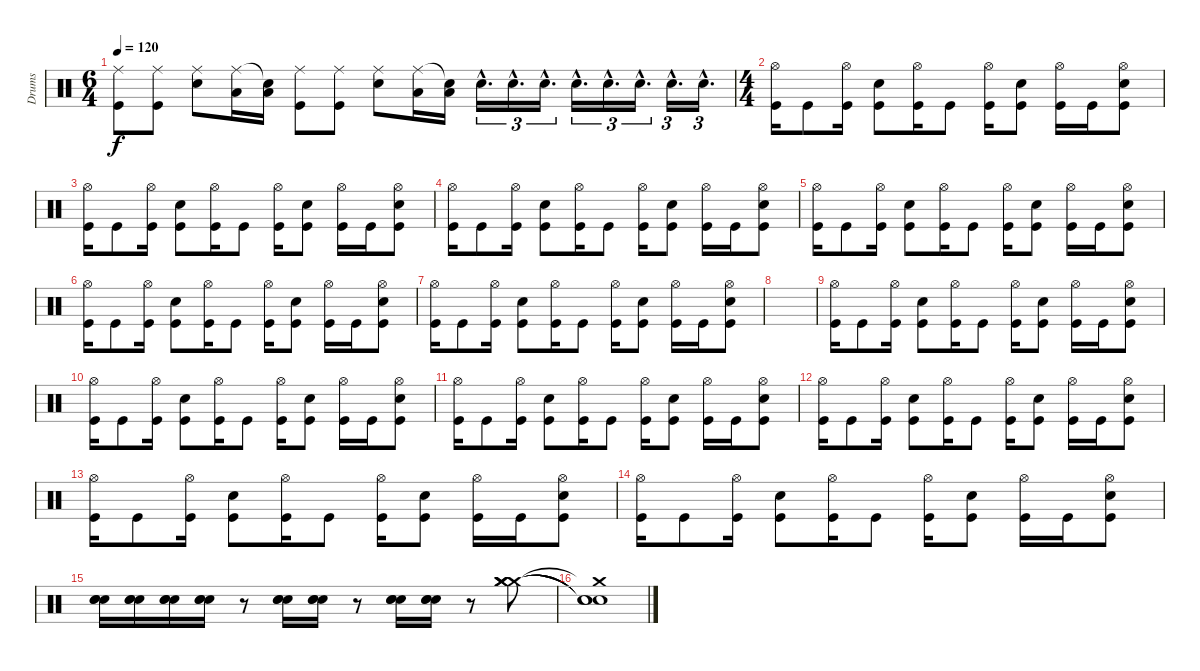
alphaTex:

\track ("Drums" "Drums") {instrument percussion}
\staff {score}
\articulation defaults
\ts (6 4)
\tempo 120
\clef neutral
\ks c
("Ride (middle)" "Kick (hit)").8{dy f} ("Ride (middle)" "Kick (hit)").8 ("Ride (middle)" "Electric Snare (hit)").8 ("Ride (middle)" "Low Floor Tom (hit)").16 ("Snare (hit)"{t} "Low Floor Tom (hit)").16 ("Ride (middle)" "Kick (hit)").8 ("Ride (middle)" "Kick (hit)").8 ("Ride (middle)" "Electric Snare (hit)").8 ("Ride (middle)" "Low Floor Tom (hit)").16 ("Snare (hit)"{t} "Low Floor Tom (hit)").16 "Electric Snare (hit)"{hac}.16{d tu (3 2)} "Electric Snare (hit)"{hac}.16{d tu (3 2)} "Electric Snare (hit)"{hac}.16{d tu (3 2)} "Electric Snare (hit)"{hac}.16{d tu (3 2)} "Electric Snare (hit)"{hac}.16{d tu (3 2)} "Electric Snare (hit)"{hac}.16{d tu (3 2)} "Electric Snare (hit)"{hac}.16{d tu (3 2)} "Electric Snare (hit)"{hac}.16{d tu (3 2)} |
\ts (4 4)
("Hi-Hat (open)" "Kick (hit)").16 "Kick (hit)".8 ("Hi-Hat (open)" "Kick (hit)").16 ("Electric Snare (hit)" "Kick (hit)").8 ("Hi-Hat (open)" "Kick (hit)").16 "Kick (hit)".8 ("Hi-Hat (open)" "Kick (hit)").16 ("Electric Snare (hit)" "Kick (hit)").8 ("Hi-Hat (open)" "Kick (hit)").16 "Kick (hit)".16 ("Hi-Hat (open)" "Electric Snare (hit)" "Kick (hit)").8 |
("Hi-Hat (open)" "Kick (hit)").16 "Kick (hit)".8 ("Hi-Hat (open)" "Kick (hit)").16 ("Electric Snare (hit)" "Kick (hit)").8 ("Hi-Hat (open)" "Kick (hit)").16 "Kick (hit)".8 ("Hi-Hat (open)" "Kick (hit)").16 ("Electric Snare (hit)" "Kick (hit)").8 ("Hi-Hat (open)" "Kick (hit)").16 "Kick (hit)".16 ("Hi-Hat (open)" "Electric Snare (hit)" "Kick (hit)").8 |
("Hi-Hat (open)" "Kick (hit)").16 "Kick (hit)".8 ("Hi-Hat (open)" "Kick (hit)").16 ("Electric Snare (hit)" "Kick (hit)").8 ("Hi-Hat (open)" "Kick (hit)").16 "Kick (hit)".8 ("Hi-Hat (open)" "Kick (hit)").16 ("Electric Snare (hit)" "Kick (hit)").8 ("Hi-Hat (open)" "Kick (hit)").16 "Kick (hit)".16 ("Hi-Hat (open)" "Electric Snare (hit)" "Kick (hit)").8 |
("Hi-Hat (open)" "Kick (hit)").16 "Kick (hit)".8 ("Hi-Hat (open)" "Kick (hit)").16 ("Electric Snare (hit)" "Kick (hit)").8 ("Hi-Hat (open)" "Kick (hit)").16 "Kick (hit)".8 ("Hi-Hat (open)" "Kick (hit)").16 ("Electric Snare (hit)" "Kick (hit)").8 ("Hi-Hat (open)" "Kick (hit)").16 "Kick (hit)".16 ("Hi-Hat (open)" "Electric Snare (hit)" "Kick (hit)").8 |
("Hi-Hat (open)" "Kick (hit)").16 "Kick (hit)".8 ("Hi-Hat (open)" "Kick (hit)").16 ("Electric Snare (hit)" "Kick (hit)").8 ("Hi-Hat (open)" "Kick (hit)").16 "Kick (hit)".8 ("Hi-Hat (open)" "Kick (hit)").16 ("Electric Snare (hit)" "Kick (hit)").8 ("Hi-Hat (open)" "Kick (hit)").16 "Kick (hit)".16 ("Hi-Hat (open)" "Electric Snare (hit)" "Kick (hit)").8 |
("Hi-Hat (open)" "Kick (hit)").16 "Kick (hit)".8 ("Hi-Hat (open)" "Kick (hit)").16 ("Electric Snare (hit)" "Kick (hit)").8 ("Hi-Hat (open)" "Kick (hit)").16 "Kick (hit)".8 ("Hi-Hat (open)" "Kick (hit)").16 ("Electric Snare (hit)" "Kick (hit)").8 ("Hi-Hat (open)" "Kick (hit)").16 "Kick (hit)".16 ("Hi-Hat (open)" "Electric Snare (hit)" "Kick (hit)").8 |
|
("Hi-Hat (open)" "Kick (hit)").16 "Kick (hit)".8 ("Hi-Hat (open)" "Kick (hit)").16 ("Electric Snare (hit)" "Kick (hit)").8 ("Hi-Hat (open)" "Kick (hit)").16 "Kick (hit)".8 ("Hi-Hat (open)" "Kick (hit)").16 ("Electric Snare (hit)" "Kick (hit)").8 ("Hi-Hat (open)" "Kick (hit)").16 "Kick (hit)".16 ("Hi-Hat (open)" "Electric Snare (hit)" "Kick (hit)").8 |
("Hi-Hat (open)" "Kick (hit)").16 "Kick (hit)".8 ("Hi-Hat (open)" "Kick (hit)").16 ("Electric Snare (hit)" "Kick (hit)").8 ("Hi-Hat (open)" "Kick (hit)").16 "Kick (hit)".8 ("Hi-Hat (open)" "Kick (hit)").16 ("Electric Snare (hit)" "Kick (hit)").8 ("Hi-Hat (open)" "Kick (hit)").16 "Kick (hit)".16 ("Hi-Hat (open)" "Electric Snare (hit)" "Kick (hit)").8 |
("Hi-Hat (open)" "Kick (hit)").16 "Kick (hit)".8 ("Hi-Hat (open)" "Kick (hit)").16 ("Electric Snare (hit)" "Kick (hit)").8 ("Hi-Hat (open)" "Kick (hit)").16 "Kick (hit)".8 ("Hi-Hat (open)" "Kick (hit)").16 ("Electric Snare (hit)" "Kick (hit)").8 ("Hi-Hat (open)" "Kick (hit)").16 "Kick (hit)".16 ("Hi-Hat (open)" "Electric Snare (hit)" "Kick (hit)").8 |
("Hi-Hat (open)" "Kick (hit)").16 "Kick (hit)".8 ("Hi-Hat (open)" "Kick (hit)").16 ("Electric Snare (hit)" "Kick (hit)").8 ("Hi-Hat (open)" "Kick (hit)").16 "Kick (hit)".8 ("Hi-Hat (open)" "Kick (hit)").16 ("Electric Snare (hit)" "Kick (hit)").8 ("Hi-Hat (open)" "Kick (hit)").16 "Kick (hit)".16 ("Hi-Hat (open)" "Electric Snare (hit)" "Kick (hit)").8 |
("Hi-Hat (open)" "Kick (hit)").16 "Kick (hit)".8 ("Hi-Hat (open)" "Kick (hit)").16 ("Electric Snare (hit)" "Kick (hit)").8 ("Hi-Hat (open)" "Kick (hit)").16 "Kick (hit)".8 ("Hi-Hat (open)" "Kick (hit)").16 ("Electric Snare (hit)" "Kick (hit)").8 ("Hi-Hat (open)" "Kick (hit)").16 "Kick (hit)".16 ("Hi-Hat (open)" "Electric Snare (hit)" "Kick (hit)").8 |
("Hi-Hat (open)" "Kick (hit)").16 "Kick (hit)".8 ("Hi-Hat (open)" "Kick (hit)").16 ("Electric Snare (hit)" "Kick (hit)").8 ("Hi-Hat (open)" "Kick (hit)").16 "Kick (hit)".8 ("Hi-Hat (open)" "Kick (hit)").16 ("Electric Snare (hit)" "Kick (hit)").8 ("Hi-Hat (open)" "Kick (hit)").16 "Kick (hit)".16 ("Hi-Hat (open)" "Electric Snare (hit)" "Kick (hit)").8 |
("Electric Snare (hit)" "Snare (hit) 2" "Electric Snare (hit)").16 ("Electric Snare (hit)" "Snare (hit) 2" "Electric Snare (hit)").16 ("Electric Snare (hit)" "Snare (hit) 2" "Electric Snare (hit)").16 ("Electric Snare (hit)" "Snare (hit) 2" "Electric Snare (hit)").16 r.8 ("Electric Snare (hit)" "Snare (hit) 2" "Electric Snare (hit)").16 ("Electric Snare (hit)" "Snare (hit) 2" "Electric Snare (hit)").16 r.8 ("Electric Snare (hit)" "Snare (hit) 2" "Electric Snare (hit)").16 ("Electric Snare (hit)" "Snare (hit) 2" "Electric Snare (hit)").16 r.8 ("Crash medium (hit)" "Crash medium (hit)" "Crash medium (hit)" "Crash medium (hit)").8 |
("Crash medium (hit)"{t} "Snare (hit)"{t} "Snare (hit)"{t} "Snare (hit)"{t}).1
